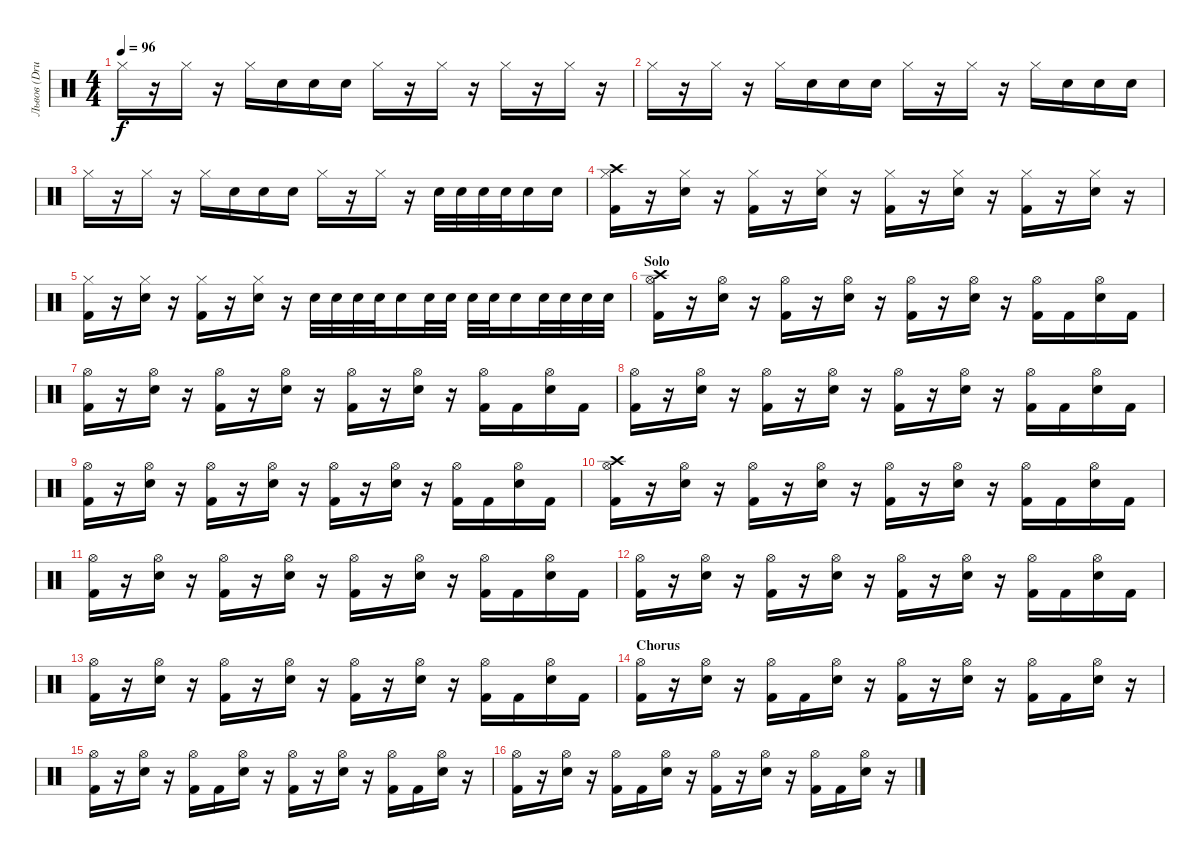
\track ("Львов (Drums)" "Львов (Dru") {instrument percussion}
\staff {score}
\articulation defaults
\ts (4 4)
\tempo 96
\clef neutral
\ks c "Hi-Hat (closed)".16{dy f}
r.16 "Hi-Hat (closed)".16 r.16 "Hi-Hat (closed)".16 "Electric Snare (hit)".16 "Electric Snare (hit)".16 "Electric Snare (hit)".16 "Hi-Hat (closed)".16 r.16 "Hi-Hat (closed)".16 r.16 "Hi-Hat (closed)".16 r.16 "Hi-Hat (closed)".16 r.16 |
"Hi-Hat (closed)".16 r.16 "Hi-Hat (closed)".16 r.16 "Hi-Hat (closed)".16 "Electric Snare (hit)".16 "Electric Snare (hit)".16 "Electric Snare (hit)".16 "Hi-Hat (closed)".16 r.16 "Hi-Hat (closed)".16 r.16 "Hi-Hat (closed)".16 "Electric Snare (hit)".16 "Electric Snare (hit)".16 "Electric Snare (hit)".16 |
"Hi-Hat (closed)".16 r.16 "Hi-Hat (closed)".16 r.16 "Hi-Hat (closed)".16 "Electric Snare (hit)".16 "Electric Snare (hit)".16 "Electric Snare (hit)".16 "Hi-Hat (closed)".16 r.16 "Hi-Hat (closed)".16 r.16 "Electric Snare (hit)".32 "Electric Snare (hit)".32 "Electric Snare (hit)".32 "Electric Snare (hit)".32 "Electric Snare (hit)".16 "Electric Snare (hit)".16 |
("Kick (hit) 2" "Crash high (hit)" "Hi-Hat (closed)").16 r.16 ("Electric Snare (hit)" "Hi-Hat (closed)").16 r.16 ("Kick (hit) 2" "Hi-Hat (closed)").16 r.16 ("Electric Snare (hit)" "Hi-Hat (closed)").16 r.16 ("Kick (hit) 2" "Hi-Hat (closed)").16 r.16 ("Electric Snare (hit)" "Hi-Hat (closed)").16 r.16 ("Kick (hit) 2" "Hi-Hat (closed)").16 r.16 ("Electric Snare (hit)" "Hi-Hat (closed)").16 r.16 |
("Kick (hit) 2" "Hi-Hat (closed)").16 r.16 ("Electric Snare (hit)" "Hi-Hat (closed)").16 r.16 ("Kick (hit) 2" "Hi-Hat (closed)").16 r.16 ("Electric Snare (hit)" "Hi-Hat (closed)").16 r.16 "Electric Snare (hit)".32 "Electric Snare (hit)".32 "Electric Snare (hit)".32 "Electric Snare (hit)".32 "Electric Snare (hit)".16 "Electric Snare (hit)".32 "Electric Snare (hit)".32 "Electric Snare (hit)".32 "Electric Snare (hit)".32 "Electric Snare (hit)".16 "Electric Snare (hit)".32 "Electric Snare (hit)".32 "Electric Snare (hit)".32 "Electric Snare (hit)".32 |
\section ("" "Solo")
("Kick (hit) 2" "Crash high (hit)" "Hi-Hat (open)").16 r.16 ("Electric Snare (hit)" "Hi-Hat (open)").16 r.16 ("Kick (hit) 2" "Hi-Hat (open)").16 r.16 ("Electric Snare (hit)" "Hi-Hat (open)").16 r.16 ("Kick (hit) 2" "Hi-Hat (open)").16 r.16 ("Electric Snare (hit)" "Hi-Hat (open)").16 r.16 ("Kick (hit) 2" "Hi-Hat (open)").16 "Kick (hit) 2".16 ("Electric Snare (hit)" "Hi-Hat (open)").16 "Kick (hit) 2".16 |
("Kick (hit) 2" "Hi-Hat (open)").16 r.16 ("Electric Snare (hit)" "Hi-Hat (open)").16 r.16 ("Kick (hit) 2" "Hi-Hat (open)").16 r.16 ("Electric Snare (hit)" "Hi-Hat (open)").16 r.16 ("Kick (hit) 2" "Hi-Hat (open)").16 r.16 ("Electric Snare (hit)" "Hi-Hat (open)").16 r.16 ("Kick (hit) 2" "Hi-Hat (open)").16 "Kick (hit) 2".16 ("Electric Snare (hit)" "Hi-Hat (open)").16 "Kick (hit) 2".16 |
("Kick (hit) 2" "Hi-Hat (open)").16 r.16 ("Electric Snare (hit)" "Hi-Hat (open)").16 r.16 ("Kick (hit) 2" "Hi-Hat (open)").16 r.16 ("Electric Snare (hit)" "Hi-Hat (open)").16 r.16 ("Kick (hit) 2" "Hi-Hat (open)").16 r.16 ("Electric Snare (hit)" "Hi-Hat (open)").16 r.16 ("Kick (hit) 2" "Hi-Hat (open)").16 "Kick (hit) 2".16 ("Electric Snare (hit)" "Hi-Hat (open)").16 "Kick (hit) 2".16 |
("Kick (hit) 2" "Hi-Hat (open)").16 r.16 ("Electric Snare (hit)" "Hi-Hat (open)").16 r.16 ("Kick (hit) 2" "Hi-Hat (open)").16 r.16 ("Electric Snare (hit)" "Hi-Hat (open)").16 r.16 ("Kick (hit) 2" "Hi-Hat (open)").16 r.16 ("Electric Snare (hit)" "Hi-Hat (open)").16 r.16 ("Kick (hit) 2" "Hi-Hat (open)").16 "Kick (hit) 2".16 ("Electric Snare (hit)" "Hi-Hat (open)").16 "Kick (hit) 2".16 |
("Kick (hit) 2" "Crash high (hit)" "Hi-Hat (open)").16 r.16 ("Electric Snare (hit)" "Hi-Hat (open)").16 r.16 ("Kick (hit) 2" "Hi-Hat (open)").16 r.16 ("Electric Snare (hit)" "Hi-Hat (open)").16 r.16 ("Kick (hit) 2" "Hi-Hat (open)").16 r.16 ("Electric Snare (hit)" "Hi-Hat (open)").16 r.16 ("Kick (hit) 2" "Hi-Hat (open)").16 "Kick (hit) 2".16 ("Electric Snare (hit)" "Hi-Hat (open)").16 "Kick (hit) 2".16 |
("Kick (hit) 2" "Hi-Hat (open)").16 r.16 ("Electric Snare (hit)" "Hi-Hat (open)").16 r.16 ("Kick (hit) 2" "Hi-Hat (open)").16 r.16 ("Electric Snare (hit)" "Hi-Hat (open)").16 r.16 ("Kick (hit) 2" "Hi-Hat (open)").16 r.16 ("Electric Snare (hit)" "Hi-Hat (open)").16 r.16 ("Kick (hit) 2" "Hi-Hat (open)").16 "Kick (hit) 2".16 ("Electric Snare (hit)" "Hi-Hat (open)").16 "Kick (hit) 2".16 |
("Kick (hit) 2" "Hi-Hat (open)").16 r.16 ("Electric Snare (hit)" "Hi-Hat (open)").16 r.16 ("Kick (hit) 2" "Hi-Hat (open)").16 r.16 ("Electric Snare (hit)" "Hi-Hat (open)").16 r.16 ("Kick (hit) 2" "Hi-Hat (open)").16 r.16 ("Electric Snare (hit)" "Hi-Hat (open)").16 r.16 ("Kick (hit) 2" "Hi-Hat (open)").16 "Kick (hit) 2".16 ("Electric Snare (hit)" "Hi-Hat (open)").16 "Kick (hit) 2".16 |
("Kick (hit) 2" "Hi-Hat (open)").16 r.16 ("Electric Snare (hit)" "Hi-Hat (open)").16 r.16 ("Kick (hit) 2" "Hi-Hat (open)").16 r.16 ("Electric Snare (hit)" "Hi-Hat (open)").16 r.16 ("Kick (hit) 2" "Hi-Hat (open)").16 r.16 ("Electric Snare (hit)" "Hi-Hat (open)").16 r.16 ("Kick (hit) 2" "Hi-Hat (open)").16 "Kick (hit) 2".16 ("Electric Snare (hit)" "Hi-Hat (open)").16 "Kick (hit) 2".16 |
\section ("" "Chorus")
("Kick (hit) 2" "Hi-Hat (open)").16 r.16 ("Electric Snare (hit)" "Hi-Hat (open)").16 r.16 ("Kick (hit) 2" "Hi-Hat (open)").16 "Kick (hit) 2".16 ("Electric Snare (hit)" "Hi-Hat (open)").16 r.16 ("Kick (hit) 2" "Hi-Hat (open)").16 r.16 ("Electric Snare (hit)" "Hi-Hat (open)").16 r.16 ("Kick (hit) 2" "Hi-Hat (open)").16 "Kick (hit) 2".16 ("Electric Snare (hit)" "Hi-Hat (open)").16 r.16 |
("Kick (hit) 2" "Hi-Hat (open)").16 r.16 ("Electric Snare (hit)" "Hi-Hat (open)").16 r.16 ("Kick (hit) 2" "Hi-Hat (open)").16 "Kick (hit) 2".16 ("Electric Snare (hit)" "Hi-Hat (open)").16 r.16 ("Kick (hit) 2" "Hi-Hat (open)").16 r.16 ("Electric Snare (hit)" "Hi-Hat (open)").16 r.16 ("Kick (hit) 2" "Hi-Hat (open)").16 "Kick (hit) 2".16 ("Electric Snare (hit)" "Hi-Hat (open)").16 r.16 |
("Kick (hit) 2" "Hi-Hat (open)").16 r.16 ("Electric Snare (hit)" "Hi-Hat (open)").16 r.16 ("Kick (hit) 2" "Hi-Hat (open)").16 "Kick (hit) 2".16 ("Electric Snare (hit)" "Hi-Hat (open)").16 r.16 ("Kick (hit) 2" "Hi-Hat (open)").16 r.16 ("Electric Snare (hit)" "Hi-Hat (open)").16 r.16 ("Kick (hit) 2" "Hi-Hat (open)").16 "Kick (hit) 2".16 ("Electric Snare (hit)" "Hi-Hat (open)").16 r.16
